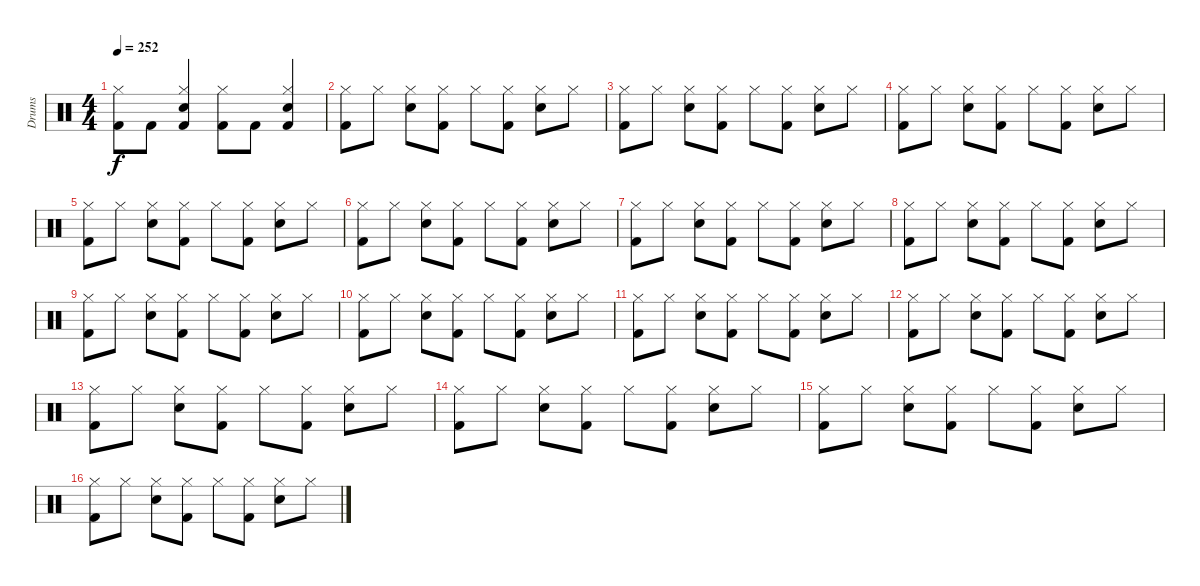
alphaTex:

\track ("Drums" "Drums") {instrument percussion}
\staff {score}
\articulation defaults
\ts (4 4)
\tempo 252
\clef neutral
\ks c
("Kick (hit) 2" "Hi-Hat (closed)").8{dy f} "Kick (hit) 2".8 ("Kick (hit) 2" "Snare (hit) 2" "Hi-Hat (closed)").4 ("Kick (hit) 2" "Hi-Hat (closed)").8 "Kick (hit) 2".8 ("Kick (hit) 2" "Snare (hit) 2" "Hi-Hat (closed)").4 |
("Kick (hit) 2" "Hi-Hat (closed)").8 "Hi-Hat (closed)".8 ("Snare (hit) 2" "Hi-Hat (closed)").8 ("Kick (hit) 2" "Hi-Hat (closed)").8 "Hi-Hat (closed)".8 ("Kick (hit) 2" "Hi-Hat (closed)").8 ("Snare (hit) 2" "Hi-Hat (closed)").8 "Hi-Hat (closed)".8 |
("Kick (hit) 2" "Hi-Hat (closed)").8 "Hi-Hat (closed)".8 ("Snare (hit) 2" "Hi-Hat (closed)").8 ("Kick (hit) 2" "Hi-Hat (closed)").8 "Hi-Hat (closed)".8 ("Kick (hit) 2" "Hi-Hat (closed)").8 ("Snare (hit) 2" "Hi-Hat (closed)").8 "Hi-Hat (closed)".8 |
("Kick (hit) 2" "Hi-Hat (closed)").8 "Hi-Hat (closed)".8 ("Snare (hit) 2" "Hi-Hat (closed)").8 ("Kick (hit) 2" "Hi-Hat (closed)").8 "Hi-Hat (closed)".8 ("Kick (hit) 2" "Hi-Hat (closed)").8 ("Snare (hit) 2" "Hi-Hat (closed)").8 "Hi-Hat (closed)".8 |
("Kick (hit) 2" "Hi-Hat (closed)").8 "Hi-Hat (closed)".8 ("Snare (hit) 2" "Hi-Hat (closed)").8 ("Kick (hit) 2" "Hi-Hat (closed)").8 "Hi-Hat (closed)".8 ("Kick (hit) 2" "Hi-Hat (closed)").8 ("Snare (hit) 2" "Hi-Hat (closed)").8 "Hi-Hat (closed)".8 |
("Kick (hit) 2" "Hi-Hat (closed)").8 "Hi-Hat (closed)".8 ("Snare (hit) 2" "Hi-Hat (closed)").8 ("Kick (hit) 2" "Hi-Hat (closed)").8 "Hi-Hat (closed)".8 ("Kick (hit) 2" "Hi-Hat (closed)").8 ("Snare (hit) 2" "Hi-Hat (closed)").8 "Hi-Hat (closed)".8 |
("Kick (hit) 2" "Hi-Hat (closed)").8 "Hi-Hat (closed)".8 ("Snare (hit) 2" "Hi-Hat (closed)").8 ("Kick (hit) 2" "Hi-Hat (closed)").8 "Hi-Hat (closed)".8 ("Kick (hit) 2" "Hi-Hat (closed)").8 ("Snare (hit) 2" "Hi-Hat (closed)").8 "Hi-Hat (closed)".8 |
("Kick (hit) 2" "Hi-Hat (closed)").8 "Hi-Hat (closed)".8 ("Snare (hit) 2" "Hi-Hat (closed)").8 ("Kick (hit) 2" "Hi-Hat (closed)").8 "Hi-Hat (closed)".8 ("Kick (hit) 2" "Hi-Hat (closed)").8 ("Snare (hit) 2" "Hi-Hat (closed)").8 "Hi-Hat (closed)".8 |
("Kick (hit) 2" "Hi-Hat (closed)").8 "Hi-Hat (closed)".8 ("Snare (hit) 2" "Hi-Hat (closed)").8 ("Kick (hit) 2" "Hi-Hat (closed)").8 "Hi-Hat (closed)".8 ("Kick (hit) 2" "Hi-Hat (closed)").8 ("Snare (hit) 2" "Hi-Hat (closed)").8 "Hi-Hat (closed)".8 |
("Kick (hit) 2" "Hi-Hat (closed)").8 "Hi-Hat (closed)".8 ("Snare (hit) 2" "Hi-Hat (closed)").8 ("Kick (hit) 2" "Hi-Hat (closed)").8 "Hi-Hat (closed)".8 ("Kick (hit) 2" "Hi-Hat (closed)").8 ("Snare (hit) 2" "Hi-Hat (closed)").8 "Hi-Hat (closed)".8 |
("Kick (hit) 2" "Hi-Hat (closed)").8 "Hi-Hat (closed)".8 ("Snare (hit) 2" "Hi-Hat (closed)").8 ("Kick (hit) 2" "Hi-Hat (closed)").8 "Hi-Hat (closed)".8 ("Kick (hit) 2" "Hi-Hat (closed)").8 ("Snare (hit) 2" "Hi-Hat (closed)").8 "Hi-Hat (closed)".8 |
("Kick (hit) 2" "Hi-Hat (closed)").8 "Hi-Hat (closed)".8 ("Snare (hit) 2" "Hi-Hat (closed)").8 ("Kick (hit) 2" "Hi-Hat (closed)").8 "Hi-Hat (closed)".8 ("Kick (hit) 2" "Hi-Hat (closed)").8 ("Snare (hit) 2" "Hi-Hat (closed)").8 "Hi-Hat (closed)".8 |
("Kick (hit) 2" "Hi-Hat (closed)").8 "Hi-Hat (closed)".8 ("Snare (hit) 2" "Hi-Hat (closed)").8 ("Kick (hit) 2" "Hi-Hat (closed)").8 "Hi-Hat (closed)".8 ("Kick (hit) 2" "Hi-Hat (closed)").8 ("Snare (hit) 2" "Hi-Hat (closed)").8 "Hi-Hat (closed)".8 |
("Kick (hit) 2" "Hi-Hat (closed)").8 "Hi-Hat (closed)".8 ("Snare (hit) 2" "Hi-Hat (closed)").8 ("Kick (hit) 2" "Hi-Hat (closed)").8 "Hi-Hat (closed)".8 ("Kick (hit) 2" "Hi-Hat (closed)").8 ("Snare (hit) 2" "Hi-Hat (closed)").8 "Hi-Hat (closed)".8 |
("Kick (hit) 2" "Hi-Hat (closed)").8 "Hi-Hat (closed)".8 ("Snare (hit) 2" "Hi-Hat (closed)").8 ("Kick (hit) 2" "Hi-Hat (closed)").8 "Hi-Hat (closed)".8 ("Kick (hit) 2" "Hi-Hat (closed)").8 ("Snare (hit) 2" "Hi-Hat (closed)").8 "Hi-Hat (closed)".8 |
("Kick (hit) 2" "Hi-Hat (closed)").8 "Hi-Hat (closed)".8 ("Snare (hit) 2" "Hi-Hat (closed)").8 ("Kick (hit) 2" "Hi-Hat (closed)").8 "Hi-Hat (closed)".8 ("Kick (hit) 2" "Hi-Hat (closed)").8 ("Snare (hit) 2" "Hi-Hat (closed)").8 "Hi-Hat (closed)".8
